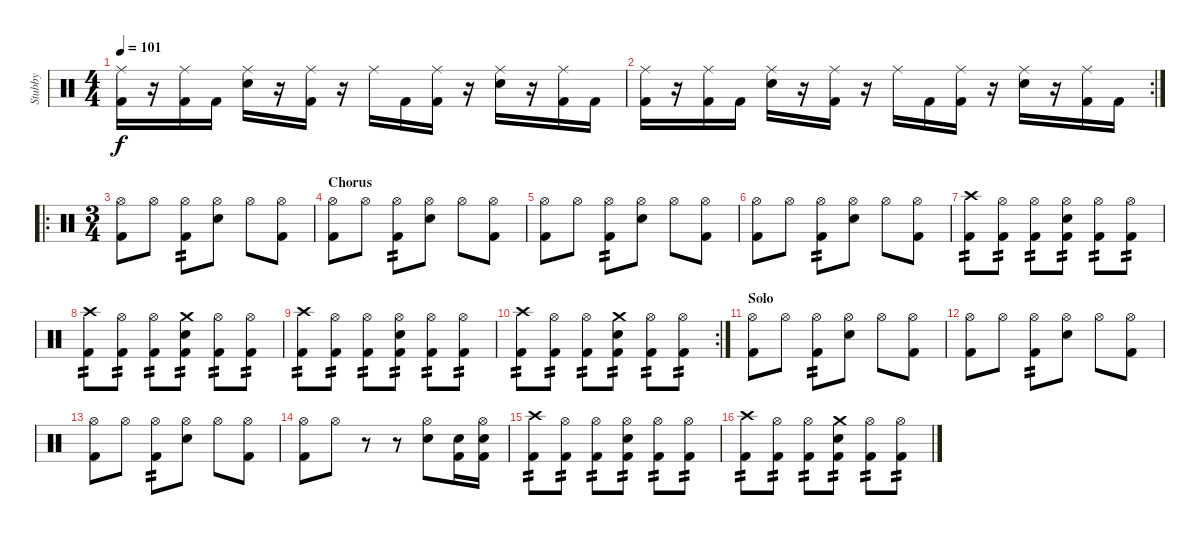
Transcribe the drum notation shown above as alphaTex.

\track ("Stubby" "Stubby") {instrument percussion}
\staff {score}
\articulation defaults
\ts (4 4)
\tempo 101
\clef neutral
\ks c
("Ride (middle)" "Kick (hit) 2").16{dy f} r.16 ("Ride (middle)" "Kick (hit) 2").16 "Kick (hit) 2".16 ("Ride (middle)" "Electric Snare (hit)").16 r.16 ("Ride (middle)" "Kick (hit) 2").16 r.16 "Ride (middle)".16 "Kick (hit) 2".16 ("Ride (middle)" "Kick (hit) 2").16 r.16 ("Ride (middle)" "Electric Snare (hit)").16 r.16 ("Ride (middle)" "Kick (hit) 2").16 "Kick (hit) 2".16 |
\rc 2
("Ride (middle)" "Kick (hit) 2").16 r.16 ("Ride (middle)" "Kick (hit) 2").16 "Kick (hit) 2".16 ("Ride (middle)" "Electric Snare (hit)").16 r.16 ("Ride (middle)" "Kick (hit) 2").16 r.16 "Ride (middle)".16 "Kick (hit) 2".16 ("Ride (middle)" "Kick (hit) 2").16 r.16 ("Ride (middle)" "Electric Snare (hit)").16 r.16 ("Ride (middle)" "Kick (hit) 2").16 "Kick (hit) 2".16 |
\ro
\ts (3 4)
\section ("" "")
("Hi-Hat (open)" "Kick (hit) 2").8 "Hi-Hat (open)".8 ("Hi-Hat (open)" "Kick (hit) 2").8{tp 2} ("Hi-Hat (open)" "Electric Snare (hit)").8 "Hi-Hat (open)".8 ("Hi-Hat (open)" "Kick (hit) 2").8 |
\section ("" "Chorus")
("Hi-Hat (open)" "Kick (hit) 2").8 "Hi-Hat (open)".8 ("Hi-Hat (open)" "Kick (hit) 2").8{tp 2} ("Hi-Hat (open)" "Electric Snare (hit)").8 "Hi-Hat (open)".8 ("Hi-Hat (open)" "Kick (hit) 2").8 |
("Hi-Hat (open)" "Kick (hit) 2").8 "Hi-Hat (open)".8 ("Hi-Hat (open)" "Kick (hit) 2").8{tp 2} ("Hi-Hat (open)" "Electric Snare (hit)").8 "Hi-Hat (open)".8 ("Hi-Hat (open)" "Kick (hit) 2").8 |
("Hi-Hat (open)" "Kick (hit) 2").8 "Hi-Hat (open)".8 ("Hi-Hat (open)" "Kick (hit) 2").8{tp 2} ("Hi-Hat (open)" "Electric Snare (hit)").8 "Hi-Hat (open)".8 ("Hi-Hat (open)" "Kick (hit) 2").8 |
("Crash high (hit)" "Kick (hit) 2").8{tp 2} ("Hi-Hat (open)" "Kick (hit) 2").8{tp 2} ("Hi-Hat (open)" "Kick (hit) 2").8{tp 2} ("Hi-Hat (open)" "Electric Snare (hit)" "Kick (hit) 2").8{tp 2} ("Hi-Hat (open)" "Kick (hit) 2").8{tp 2} ("Hi-Hat (open)" "Kick (hit) 2").8{tp 2} |
("Crash high (hit)" "Kick (hit) 2").8{tp 2} ("Hi-Hat (open)" "Kick (hit) 2").8{tp 2} ("Hi-Hat (open)" "Kick (hit) 2").8{tp 2} ("Crash medium (hit)" "Electric Snare (hit)" "Kick (hit) 2").8{tp 2} ("Hi-Hat (open)" "Kick (hit) 2").8{tp 2} ("Hi-Hat (open)" "Kick (hit) 2").8{tp 2} |
("Crash high (hit)" "Kick (hit) 2").8{tp 2} ("Hi-Hat (open)" "Kick (hit) 2").8{tp 2} ("Hi-Hat (open)" "Kick (hit) 2").8{tp 2} ("Hi-Hat (open)" "Electric Snare (hit)" "Kick (hit) 2").8{tp 2} ("Hi-Hat (open)" "Kick (hit) 2").8{tp 2} ("Hi-Hat (open)" "Kick (hit) 2").8{tp 2} |
\rc 2
("Crash high (hit)" "Kick (hit) 2").8{tp 2} ("Hi-Hat (open)" "Kick (hit) 2").8{tp 2} ("Hi-Hat (open)" "Kick (hit) 2").8{tp 2} ("Crash medium (hit)" "Electric Snare (hit)" "Kick (hit) 2").8{tp 2} ("Hi-Hat (open)" "Kick (hit) 2").8{tp 2} ("Hi-Hat (open)" "Kick (hit) 2").8{tp 2} |
\section ("" "Solo")
("Hi-Hat (open)" "Kick (hit) 2").8{volume 12} "Hi-Hat (open)".8 ("Hi-Hat (open)" "Kick (hit) 2").8{tp 2} ("Hi-Hat (open)" "Electric Snare (hit)").8 "Hi-Hat (open)".8 ("Hi-Hat (open)" "Kick (hit) 2").8 |
("Hi-Hat (open)" "Kick (hit) 2").8 "Hi-Hat (open)".8 ("Hi-Hat (open)" "Kick (hit) 2").8{tp 2} ("Hi-Hat (open)" "Electric Snare (hit)").8 "Hi-Hat (open)".8 ("Hi-Hat (open)" "Kick (hit) 2").8 |
("Hi-Hat (open)" "Kick (hit) 2").8 "Hi-Hat (open)".8 ("Hi-Hat (open)" "Kick (hit) 2").8{tp 2} ("Hi-Hat (open)" "Electric Snare (hit)").8 "Hi-Hat (open)".8 ("Hi-Hat (open)" "Kick (hit) 2").8 |
("Hi-Hat (open)" "Kick (hit) 2").8 "Hi-Hat (open)".8 r.8 r.8 ("Hi-Hat (open)" "Electric Snare (hit)").8 ("Electric Snare (hit)" "Kick (hit) 2").16 ("Hi-Hat (open)" "Electric Snare (hit)" "Kick (hit) 2").16 |
("Crash high (hit)" "Kick (hit) 2").8{tp 2} ("Hi-Hat (open)" "Kick (hit) 2").8{tp 2} ("Hi-Hat (open)" "Kick (hit) 2").8{tp 2} ("Hi-Hat (open)" "Electric Snare (hit)" "Kick (hit) 2").8{tp 2} ("Hi-Hat (open)" "Kick (hit) 2").8{tp 2} ("Hi-Hat (open)" "Kick (hit) 2").8{tp 2} |
("Crash high (hit)" "Kick (hit) 2").8{tp 2} ("Hi-Hat (open)" "Kick (hit) 2").8{tp 2} ("Hi-Hat (open)" "Kick (hit) 2").8{tp 2} ("Crash medium (hit)" "Electric Snare (hit)" "Kick (hit) 2").8{tp 2} ("Hi-Hat (open)" "Kick (hit) 2").8{tp 2} ("Hi-Hat (open)" "Kick (hit) 2").8{tp 2}
